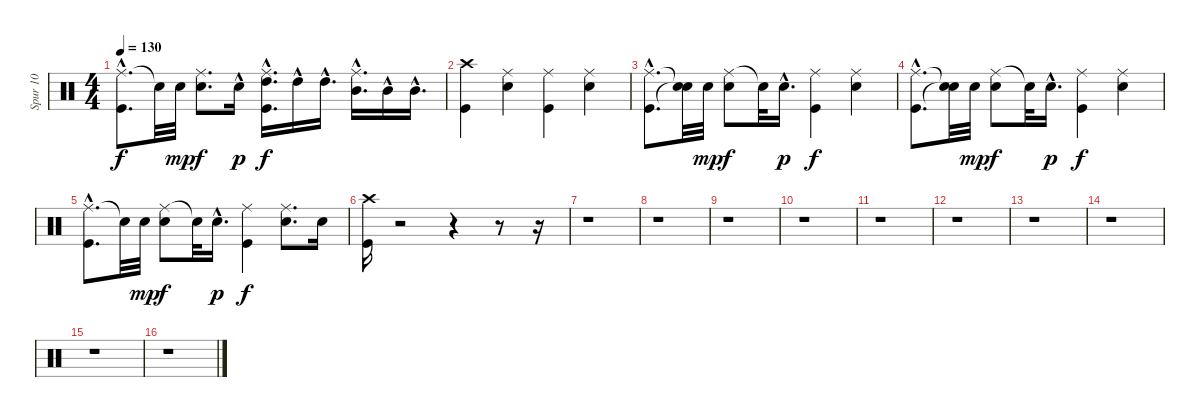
\track ("Spur 10" "Spur 10") {instrument percussion}
\staff {score}
\articulation defaults
\ts (4 4)
\tempo 130
\clef neutral
\ks c
("Ride (middle)" "Kick (hit)"{hac}).8{d dy f} "Snare (hit)"{t}.32 "Electric Snare (hit)".32{dy mp} ("Ride (middle)" "Electric Snare (hit)").8{d dy f} "Electric Snare (hit)"{hac}.16{dy p} ("High Tom (hit)"{hac} "Ride (middle)" "Kick (hit)").16{d dy f} "High Tom (hit)"{hac}.16 "High Tom (hit)"{hac}.16{d} ("Mid Tom (hit)"{hac} "Ride (middle)").16{d} "Mid Tom (hit)"{hac}.16 "Mid Tom (hit)"{hac}.16{d} |
("Crash high (hit)" "Kick (hit)").4 ("Ride (middle)" "Electric Snare (hit)").4 ("Ride (middle)" "Kick (hit)").4 ("Ride (middle)" "Electric Snare (hit)").4 |
("Ride (middle)"{hac} "Kick (hit)"{hac}).8{d} ("Snare (hit)"{t} "Snare (hit)"{t}).32 "Electric Snare (hit)".32{dy mp} ("Ride (middle)" "Electric Snare (hit)").8{dy f} "Snare (hit)"{t}.32 "Electric Snare (hit)"{hac}.16{d dy p} ("Ride (middle)" "Kick (hit)").4{dy f} ("Ride (middle)" "Electric Snare (hit)").4 |
("Ride (middle)"{hac} "Kick (hit)"{hac}).8{d} ("Snare (hit)"{t} "Snare (hit)"{t}).32 "Electric Snare (hit)".32{dy mp} ("Ride (middle)" "Electric Snare (hit)").8{dy f} "Snare (hit)"{t}.32 "Electric Snare (hit)"{hac}.16{d dy p} ("Ride (middle)" "Kick (hit)").4{dy f} ("Ride (middle)" "Electric Snare (hit)").4 |
("Ride (middle)" "Kick (hit)"{hac}).8{d} "Snare (hit)"{t}.32 "Electric Snare (hit)".32{dy mp} ("Ride (middle)" "Electric Snare (hit)").8{dy f} "Snare (hit)"{t}.32 "Electric Snare (hit)"{hac}.16{d dy p} ("Ride (middle)" "Kick (hit)").4{dy f} ("Ride (middle)" "Electric Snare (hit)").8{d} "Electric Snare (hit)".16 |
("Kick (hit)" "Crash high (hit)").16 r.2 r.4 r.8 r.16 |
r.1 |
r.1 |
r.1 |
r.1 |
r.1 |
r.1 |
r.1 |
r.1 |
r.1 |
r.1
